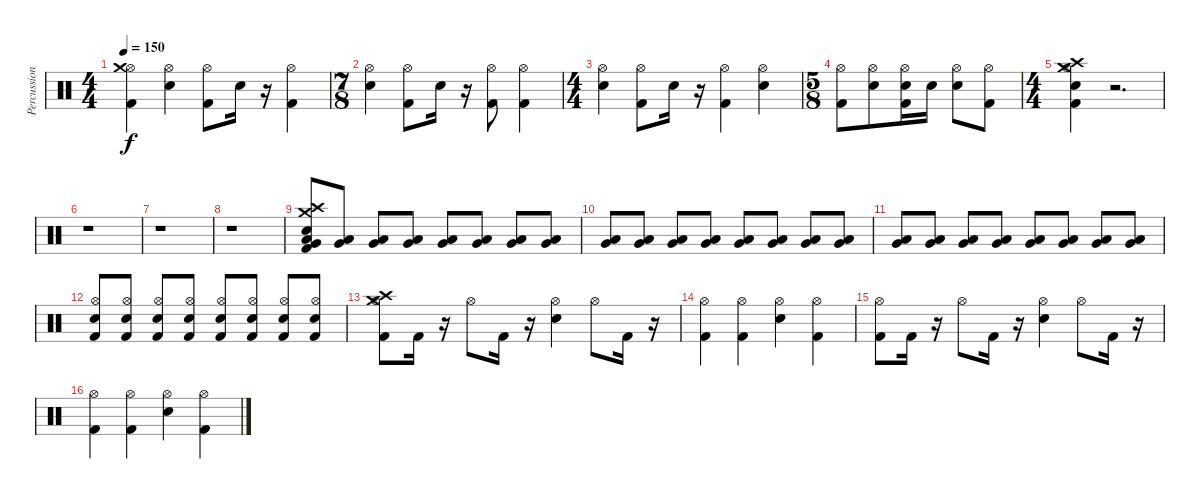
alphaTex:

\track ("Percussion" "Percussion") {instrument percussion}
\staff {score}
\articulation defaults
\ts (4 4)
\tempo 150
\clef neutral
\ks c
("Kick (hit) 2" "Hi-Hat (open)" "Crash medium (hit)").4{dy f} ("Electric Snare (hit)" "Hi-Hat (open)").4 ("Kick (hit) 2" "Hi-Hat (open)").8 "Electric Snare (hit)".16 r.16 ("Kick (hit) 2" "Hi-Hat (open)").4 |
\ts (7 8)
("Electric Snare (hit)" "Hi-Hat (open)").4 ("Kick (hit) 2" "Hi-Hat (open)").8 "Electric Snare (hit)".16 r.16 ("Kick (hit) 2" "Hi-Hat (open)").8 ("Kick (hit) 2" "Hi-Hat (open)").4 |
\ts (4 4)
("Electric Snare (hit)" "Hi-Hat (open)").4 ("Kick (hit) 2" "Hi-Hat (open)").8 "Electric Snare (hit)".16 r.16 ("Kick (hit) 2" "Hi-Hat (open)").4 ("Electric Snare (hit)" "Hi-Hat (open)").4 |
\ts (5 8)
("Kick (hit) 2" "Hi-Hat (open)").8 ("Electric Snare (hit)" "Hi-Hat (open)").8 ("Kick (hit) 2" "Electric Snare (hit)" "Hi-Hat (open)").16 "Electric Snare (hit)".16 ("Electric Snare (hit)" "Hi-Hat (open)").8 ("Kick (hit) 2" "Hi-Hat (open)").8 |
\ts (4 4)
("Kick (hit) 2" "Electric Snare (hit)" "Hi-Hat (open)" "Crash high (hit)" "Crash medium (hit)").4 r.2{d} |
r.1 |
r.1 |
r.1 |
("Kick (hit) 2" "Electric Snare (hit)" "Very Low Tom (hit)" "Low Tom (hit)" "Crash high (hit)" "Crash medium (hit)").8 ("Very Low Tom (hit)" "Low Tom (hit)").8 ("Very Low Tom (hit)" "Low Tom (hit)").8 ("Very Low Tom (hit)" "Low Tom (hit)").8 ("Very Low Tom (hit)" "Low Tom (hit)").8 ("Very Low Tom (hit)" "Low Tom (hit)").8 ("Very Low Tom (hit)" "Low Tom (hit)").8 ("Very Low Tom (hit)" "Low Tom (hit)").8 |
("Very Low Tom (hit)" "Low Tom (hit)").8 ("Very Low Tom (hit)" "Low Tom (hit)").8 ("Very Low Tom (hit)" "Low Tom (hit)").8 ("Very Low Tom (hit)" "Low Tom (hit)").8 ("Very Low Tom (hit)" "Low Tom (hit)").8 ("Very Low Tom (hit)" "Low Tom (hit)").8 ("Very Low Tom (hit)" "Low Tom (hit)").8 ("Very Low Tom (hit)" "Low Tom (hit)").8 |
("Very Low Tom (hit)" "Low Tom (hit)").8 ("Very Low Tom (hit)" "Low Tom (hit)").8 ("Very Low Tom (hit)" "Low Tom (hit)").8 ("Very Low Tom (hit)" "Low Tom (hit)").8 ("Very Low Tom (hit)" "Low Tom (hit)").8 ("Very Low Tom (hit)" "Low Tom (hit)").8 ("Very Low Tom (hit)" "Low Tom (hit)").8 ("Very Low Tom (hit)" "Low Tom (hit)").8 |
("Kick (hit) 2" "Electric Snare (hit)" "Hi-Hat (open)").8 ("Kick (hit) 2" "Electric Snare (hit)" "Hi-Hat (open)").8 ("Kick (hit) 2" "Electric Snare (hit)" "Hi-Hat (open)").8 ("Kick (hit) 2" "Electric Snare (hit)" "Hi-Hat (open)").8 ("Kick (hit) 2" "Electric Snare (hit)" "Hi-Hat (open)").8 ("Kick (hit) 2" "Electric Snare (hit)" "Hi-Hat (open)").8 ("Kick (hit) 2" "Electric Snare (hit)" "Hi-Hat (open)").8 ("Kick (hit) 2" "Electric Snare (hit)" "Hi-Hat (open)").8 |
("Kick (hit) 2" "Hi-Hat (open)" "Crash high (hit)" "Crash medium (hit)").8 "Kick (hit) 2".16 r.16 "Hi-Hat (open)".8 "Kick (hit) 2".16 r.16 ("Electric Snare (hit)" "Hi-Hat (open)").4 "Hi-Hat (open)".8 "Kick (hit) 2".16 r.16 |
("Kick (hit) 2" "Hi-Hat (open)").4 ("Kick (hit) 2" "Hi-Hat (open)").4 ("Electric Snare (hit)" "Hi-Hat (open)").4 ("Kick (hit) 2" "Hi-Hat (open)").4 |
("Kick (hit) 2" "Hi-Hat (open)").8 "Kick (hit) 2".16 r.16 "Hi-Hat (open)".8 "Kick (hit) 2".16 r.16 ("Electric Snare (hit)" "Hi-Hat (open)").4 "Hi-Hat (open)".8 "Kick (hit) 2".16 r.16 |
("Kick (hit) 2" "Hi-Hat (open)").4 ("Kick (hit) 2" "Hi-Hat (open)").4 ("Electric Snare (hit)" "Hi-Hat (open)").4 ("Kick (hit) 2" "Hi-Hat (open)").4
